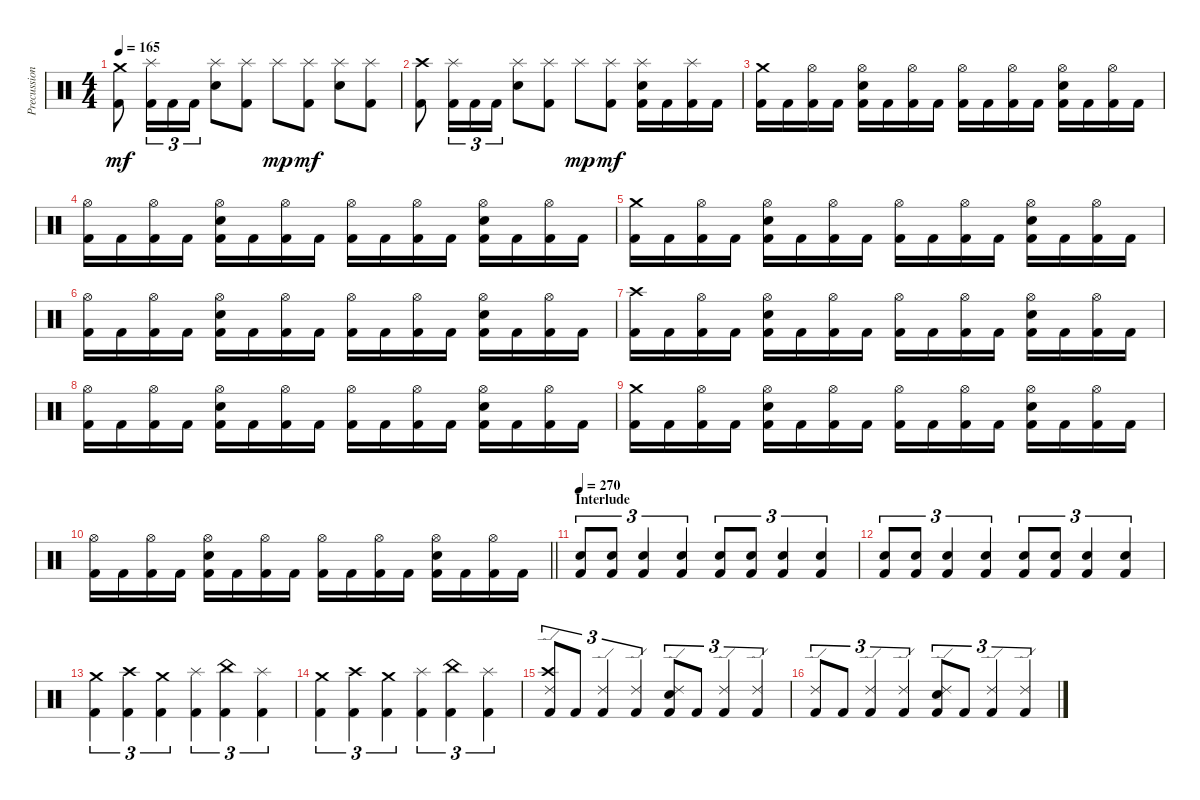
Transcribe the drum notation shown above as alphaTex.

\track ("Precussion" "Precussion") {instrument percussion}
\staff {score}
\articulation defaults
\ts (4 4)
\tempo 165
\clef neutral
\ks c
("Crash medium (hit)" "Kick (hit) 2").8{dy mf} ("Splash (hit)" "Kick (hit) 2").16{tu (3 2)} "Kick (hit) 2".16{tu (3 2)} "Kick (hit) 2".16{tu (3 2)} ("Splash (hit)" "Electric Snare (hit)").8 ("Splash (hit)" "Kick (hit) 2").8 "Splash (hit)".8{dy mp} ("Splash (hit)" "Kick (hit) 2").8{dy mf} ("Splash (hit)" "Electric Snare (hit)").8 ("Splash (hit)" "Kick (hit) 2").8 |
("Crash high (hit)" "Kick (hit) 2").8 ("Splash (hit)" "Kick (hit) 2").16{tu (3 2)} "Kick (hit) 2".16{tu (3 2)} "Kick (hit) 2".16{tu (3 2)} ("Splash (hit)" "Electric Snare (hit)").8 ("Splash (hit)" "Kick (hit) 2").8 "Splash (hit)".8{dy mp} ("Splash (hit)" "Kick (hit) 2").8{dy mf} ("Splash (hit)" "Electric Snare (hit)" "Kick (hit) 2").16 "Kick (hit) 2".16 ("Splash (hit)" "Kick (hit) 2").16 "Kick (hit) 2".16 |
("Crash medium (hit)" "Kick (hit) 2").16 "Kick (hit) 2".16 ("Hi-Hat (open)" "Kick (hit) 2").16 "Kick (hit) 2".16 ("Hi-Hat (open)" "Electric Snare (hit)" "Kick (hit) 2").16 "Kick (hit) 2".16 ("Hi-Hat (open)" "Kick (hit) 2").16 "Kick (hit) 2".16 ("Hi-Hat (open)" "Kick (hit) 2").16 "Kick (hit) 2".16 ("Hi-Hat (open)" "Kick (hit) 2").16 "Kick (hit) 2".16 ("Hi-Hat (open)" "Electric Snare (hit)" "Kick (hit) 2").16 "Kick (hit) 2".16 ("Hi-Hat (open)" "Kick (hit) 2").16 "Kick (hit) 2".16 |
("Hi-Hat (open)" "Kick (hit) 2").16 "Kick (hit) 2".16 ("Hi-Hat (open)" "Kick (hit) 2").16 "Kick (hit) 2".16 ("Hi-Hat (open)" "Electric Snare (hit)" "Kick (hit) 2").16 "Kick (hit) 2".16 ("Hi-Hat (open)" "Kick (hit) 2").16 "Kick (hit) 2".16 ("Hi-Hat (open)" "Kick (hit) 2").16 "Kick (hit) 2".16 ("Hi-Hat (open)" "Kick (hit) 2").16 "Kick (hit) 2".16 ("Hi-Hat (open)" "Electric Snare (hit)" "Kick (hit) 2").16 "Kick (hit) 2".16 ("Hi-Hat (open)" "Kick (hit) 2").16 "Kick (hit) 2".16 |
("Crash medium (hit)" "Kick (hit) 2").16 "Kick (hit) 2".16 ("Hi-Hat (open)" "Kick (hit) 2").16 "Kick (hit) 2".16 ("Hi-Hat (open)" "Electric Snare (hit)" "Kick (hit) 2").16 "Kick (hit) 2".16 ("Hi-Hat (open)" "Kick (hit) 2").16 "Kick (hit) 2".16 ("Hi-Hat (open)" "Kick (hit) 2").16 "Kick (hit) 2".16 ("Hi-Hat (open)" "Kick (hit) 2").16 "Kick (hit) 2".16 ("Hi-Hat (open)" "Electric Snare (hit)" "Kick (hit) 2").16 "Kick (hit) 2".16 ("Hi-Hat (open)" "Kick (hit) 2").16 "Kick (hit) 2".16 |
("Hi-Hat (open)" "Kick (hit) 2").16 "Kick (hit) 2".16 ("Hi-Hat (open)" "Kick (hit) 2").16 "Kick (hit) 2".16 ("Hi-Hat (open)" "Electric Snare (hit)" "Kick (hit) 2").16 "Kick (hit) 2".16 ("Hi-Hat (open)" "Kick (hit) 2").16 "Kick (hit) 2".16 ("Hi-Hat (open)" "Kick (hit) 2").16 "Kick (hit) 2".16 ("Hi-Hat (open)" "Kick (hit) 2").16 "Kick (hit) 2".16 ("Hi-Hat (open)" "Electric Snare (hit)" "Kick (hit) 2").16 "Kick (hit) 2".16 ("Hi-Hat (open)" "Kick (hit) 2").16 "Kick (hit) 2".16 |
("Crash high (hit)" "Kick (hit) 2").16 "Kick (hit) 2".16 ("Hi-Hat (open)" "Kick (hit) 2").16 "Kick (hit) 2".16 ("Hi-Hat (open)" "Electric Snare (hit)" "Kick (hit) 2").16 "Kick (hit) 2".16 ("Hi-Hat (open)" "Kick (hit) 2").16 "Kick (hit) 2".16 ("Hi-Hat (open)" "Kick (hit) 2").16 "Kick (hit) 2".16 ("Hi-Hat (open)" "Kick (hit) 2").16 "Kick (hit) 2".16 ("Hi-Hat (open)" "Electric Snare (hit)" "Kick (hit) 2").16 "Kick (hit) 2".16 ("Hi-Hat (open)" "Kick (hit) 2").16 "Kick (hit) 2".16 |
("Hi-Hat (open)" "Kick (hit) 2").16 "Kick (hit) 2".16 ("Hi-Hat (open)" "Kick (hit) 2").16 "Kick (hit) 2".16 ("Hi-Hat (open)" "Electric Snare (hit)" "Kick (hit) 2").16 "Kick (hit) 2".16 ("Hi-Hat (open)" "Kick (hit) 2").16 "Kick (hit) 2".16 ("Hi-Hat (open)" "Kick (hit) 2").16 "Kick (hit) 2".16 ("Hi-Hat (open)" "Kick (hit) 2").16 "Kick (hit) 2".16 ("Hi-Hat (open)" "Electric Snare (hit)" "Kick (hit) 2").16 "Kick (hit) 2".16 ("Hi-Hat (open)" "Kick (hit) 2").16 "Kick (hit) 2".16 |
("Crash medium (hit)" "Kick (hit) 2").16 "Kick (hit) 2".16 ("Hi-Hat (open)" "Kick (hit) 2").16 "Kick (hit) 2".16 ("Hi-Hat (open)" "Electric Snare (hit)" "Kick (hit) 2").16 "Kick (hit) 2".16 ("Hi-Hat (open)" "Kick (hit) 2").16 "Kick (hit) 2".16 ("Hi-Hat (open)" "Kick (hit) 2").16 "Kick (hit) 2".16 ("Hi-Hat (open)" "Kick (hit) 2").16 "Kick (hit) 2".16 ("Hi-Hat (open)" "Electric Snare (hit)" "Kick (hit) 2").16 "Kick (hit) 2".16 ("Hi-Hat (open)" "Kick (hit) 2").16 "Kick (hit) 2".16 |
\barLineRight lightlight
("Hi-Hat (open)" "Kick (hit) 2").16 "Kick (hit) 2".16 ("Hi-Hat (open)" "Kick (hit) 2").16 "Kick (hit) 2".16 ("Hi-Hat (open)" "Electric Snare (hit)" "Kick (hit) 2").16 "Kick (hit) 2".16 ("Hi-Hat (open)" "Kick (hit) 2").16 "Kick (hit) 2".16 ("Hi-Hat (open)" "Kick (hit) 2").16 "Kick (hit) 2".16 ("Hi-Hat (open)" "Kick (hit) 2").16 "Kick (hit) 2".16 ("Hi-Hat (open)" "Electric Snare (hit)" "Kick (hit) 2").16 "Kick (hit) 2".16 ("Hi-Hat (open)" "Kick (hit) 2").16 "Kick (hit) 2".16 |
\section ("" "Interlude")
\tempo 270
("Electric Snare (hit)" "Kick (hit) 2").8{tu (3 2)} ("Electric Snare (hit)" "Kick (hit) 2").8{tu (3 2)} ("Electric Snare (hit)" "Kick (hit) 2").4{tu (3 2)} ("Electric Snare (hit)" "Kick (hit) 2").4{tu (3 2)} ("Electric Snare (hit)" "Kick (hit) 2").8{tu (3 2)} ("Electric Snare (hit)" "Kick (hit) 2").8{tu (3 2)} ("Electric Snare (hit)" "Kick (hit) 2").4{tu (3 2)} ("Electric Snare (hit)" "Kick (hit) 2").4{tu (3 2)} |
("Electric Snare (hit)" "Kick (hit) 2").8{tu (3 2)} ("Electric Snare (hit)" "Kick (hit) 2").8{tu (3 2)} ("Electric Snare (hit)" "Kick (hit) 2").4{tu (3 2)} ("Electric Snare (hit)" "Kick (hit) 2").4{tu (3 2)} ("Electric Snare (hit)" "Kick (hit) 2").8{tu (3 2)} ("Electric Snare (hit)" "Kick (hit) 2").8{tu (3 2)} ("Electric Snare (hit)" "Kick (hit) 2").4{tu (3 2)} ("Electric Snare (hit)" "Kick (hit) 2").4{tu (3 2)} |
("Crash medium (hit)" "Kick (hit) 2").4{tu (3 2)} ("Crash high (hit)" "Kick (hit) 2").4{tu (3 2)} ("Crash medium (hit)" "Kick (hit) 2").4{tu (3 2)} ("Splash (hit)" "Kick (hit) 2").4{tu (3 2)} ("China (hit)" "Kick (hit) 2").4{tu (3 2)} ("Splash (hit)" "Kick (hit) 2").4{tu (3 2)} |
("Crash medium (hit)" "Kick (hit) 2").4{tu (3 2)} ("Crash high (hit)" "Kick (hit) 2").4{tu (3 2)} ("Crash medium (hit)" "Kick (hit) 2").4{tu (3 2)} ("Splash (hit)" "Kick (hit) 2").4{tu (3 2)} ("China (hit)" "Kick (hit) 2").4{tu (3 2)} ("Splash (hit)" "Kick (hit) 2").4{tu (3 2)} |
("Crash high (hit)" "Ride (edge) 2" "Kick (hit) 2").8{tu (3 2)} "Kick (hit) 2".8{tu (3 2)} ("Ride (edge) 2" "Kick (hit) 2").4{tu (3 2)} ("Ride (edge) 2" "Kick (hit) 2").4{tu (3 2)} ("Ride (edge) 2" "Electric Snare (hit)" "Kick (hit) 2").8{tu (3 2)} "Kick (hit) 2".8{tu (3 2)} ("Ride (edge) 2" "Kick (hit) 2").4{tu (3 2)} ("Ride (edge) 2" "Kick (hit) 2").4{tu (3 2)} |
("Ride (edge) 2" "Kick (hit) 2").8{tu (3 2)} "Kick (hit) 2".8{tu (3 2)} ("Ride (edge) 2" "Kick (hit) 2").4{tu (3 2)} ("Ride (edge) 2" "Kick (hit) 2").4{tu (3 2)} ("Ride (edge) 2" "Electric Snare (hit)" "Kick (hit) 2").8{tu (3 2)} "Kick (hit) 2".8{tu (3 2)} ("Ride (edge) 2" "Kick (hit) 2").4{tu (3 2)} ("Ride (edge) 2" "Kick (hit) 2").4{tu (3 2)}
